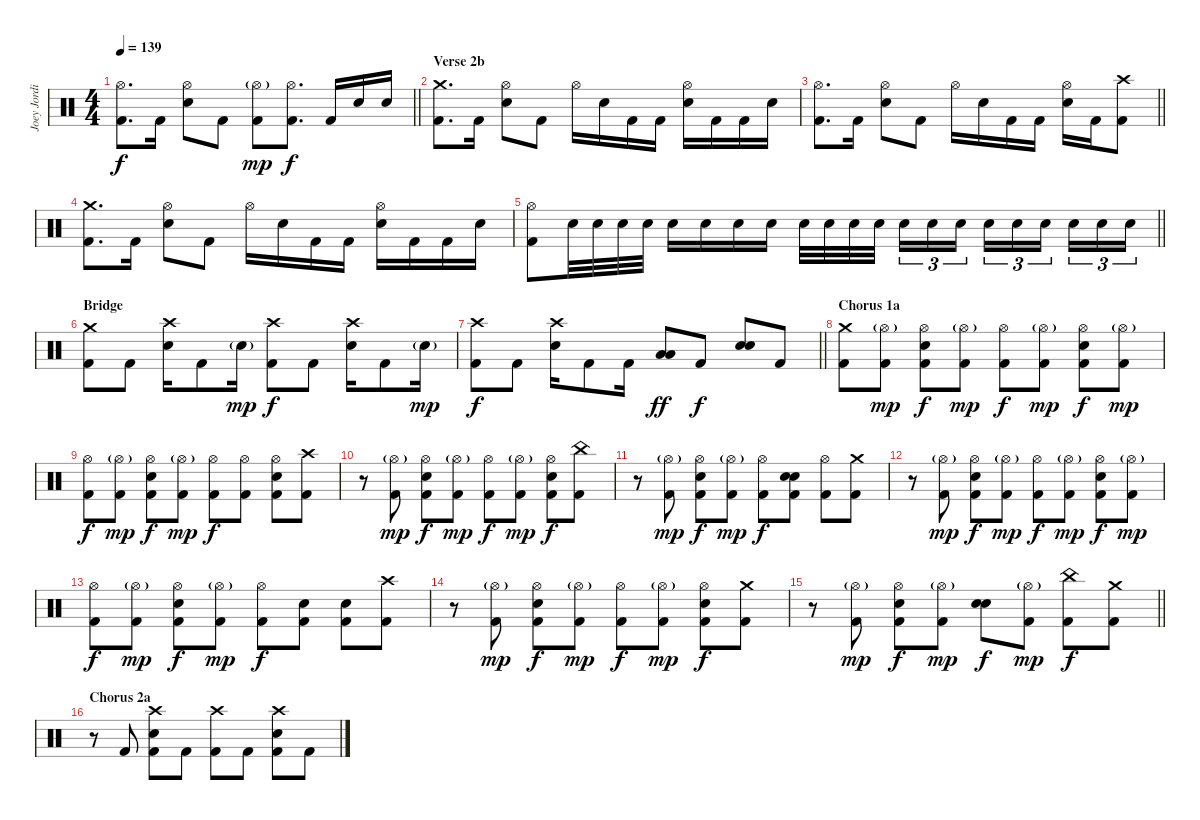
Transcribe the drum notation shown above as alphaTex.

\track ("Joey Jordison" "Joey Jordi") {instrument percussion}
\staff {score}
\articulation defaults
\ts (4 4)
\tempo 139
\clef neutral
\barLineRight lightlight
\ks c
("Hi-Hat (open)" "Kick (hit) 2").8{d dy f} "Kick (hit) 2".16 ("Hi-Hat (open)" "Electric Snare (hit)").8 "Kick (hit) 2".8 ("Hi-Hat (open)"{g} "Kick (hit) 2").8{dy mp} ("Hi-Hat (open)" "Kick (hit) 2").8{d dy f} "Kick (hit) 2".16 "Electric Snare (hit)".16 "Electric Snare (hit)".16 |
\section ("" "Verse 2b")
("Crash medium (hit)" "Kick (hit) 2").8{d} "Kick (hit) 2".16 ("Hi-Hat (open)" "Electric Snare (hit)").8 "Kick (hit) 2".8 "Hi-Hat (open)".16 "Electric Snare (hit)".16 "Kick (hit) 2".16 "Kick (hit) 2".16 ("Hi-Hat (open)" "Electric Snare (hit)").16 "Kick (hit) 2".16 "Kick (hit) 2".16 "Electric Snare (hit)".16 |
\barLineRight lightlight
("Hi-Hat (open)" "Kick (hit) 2").8{d} "Kick (hit) 2".16 ("Hi-Hat (open)" "Electric Snare (hit)").8 "Kick (hit) 2".8 "Hi-Hat (open)".16 "Electric Snare (hit)".16 "Kick (hit) 2".16 "Kick (hit) 2".16 ("Hi-Hat (open)" "Electric Snare (hit)").16 "Kick (hit) 2".16 ("Crash high (hit)" "Kick (hit) 2").8 |
("Crash medium (hit)" "Kick (hit) 2").8{d} "Kick (hit) 2".16 ("Hi-Hat (open)" "Electric Snare (hit)").8 "Kick (hit) 2".8 "Hi-Hat (open)".16 "Electric Snare (hit)".16 "Kick (hit) 2".16 "Kick (hit) 2".16 ("Hi-Hat (open)" "Electric Snare (hit)").16 "Kick (hit) 2".16 "Kick (hit) 2".16 "Electric Snare (hit)".16 |
\barLineRight lightlight
("Hi-Hat (open)" "Kick (hit) 2").8 "Electric Snare (hit)".32 "Electric Snare (hit)".32 "Electric Snare (hit)".32 "Electric Snare (hit)".32 "Electric Snare (hit)".16 "Electric Snare (hit)".16 "Electric Snare (hit)".16 "Electric Snare (hit)".16 "Electric Snare (hit)".32 "Electric Snare (hit)".32 "Electric Snare (hit)".32 "Electric Snare (hit)".32{beam splitsecondary} "Electric Snare (hit)".16{tu (3 2)} "Electric Snare (hit)".16{tu (3 2)} "Electric Snare (hit)".16{tu (3 2)} "Electric Snare (hit)".16{tu (3 2)} "Electric Snare (hit)".16{tu (3 2)} "Electric Snare (hit)".16{tu (3 2) beam splitsecondary} "Electric Snare (hit)".16{tu (3 2)} "Electric Snare (hit)".16{tu (3 2)} "Electric Snare (hit)".16{tu (3 2)} |
\section ("" "Bridge")
("Crash medium (hit)" "Kick (hit) 2").8 "Kick (hit) 2".8 ("Crash high (hit)" "Electric Snare (hit)").16 "Kick (hit) 2".8 "Electric Snare (hit)"{g}.16{dy mp} ("Crash high (hit)" "Kick (hit) 2").8{dy f} "Kick (hit) 2".8 ("Crash high (hit)" "Electric Snare (hit)").16 "Kick (hit) 2".8 "Electric Snare (hit)"{g}.16{dy mp} |
\barLineRight lightlight
("Crash high (hit)" "Kick (hit) 2").8{dy f} "Kick (hit) 2".8 ("Crash high (hit)" "Electric Snare (hit)").16 "Kick (hit) 2".8 "Kick (hit) 2".16 ("Low Tom (hit)" "Low Floor Tom (hit)").8{dy ff} "Kick (hit) 2".8{dy f} ("Electric Snare (hit)" "Electric Snare (hit)").8{bd 240} "Kick (hit) 2".8 |
\section ("" "Chorus 1a")
("Crash medium (hit)" "Kick (hit) 2").8 ("Hi-Hat (open)"{g} "Kick (hit) 2").8{dy mp} ("Hi-Hat (open)" "Electric Snare (hit)" "Kick (hit) 2").8{dy f} ("Hi-Hat (open)"{g} "Kick (hit) 2").8{dy mp} ("Hi-Hat (open)" "Kick (hit) 2").8{dy f} ("Hi-Hat (open)"{g} "Kick (hit) 2").8{dy mp} ("Hi-Hat (open)" "Electric Snare (hit)" "Kick (hit) 2").8{dy f} ("Hi-Hat (open)"{g} "Kick (hit) 2").8{dy mp} |
("Hi-Hat (open)" "Kick (hit) 2").8{dy f} ("Hi-Hat (open)"{g} "Kick (hit) 2").8{dy mp} ("Hi-Hat (open)" "Electric Snare (hit)" "Kick (hit) 2").8{dy f} ("Hi-Hat (open)"{g} "Kick (hit) 2").8{dy mp} ("Hi-Hat (open)" "Kick (hit) 2").8{dy f} ("Hi-Hat (open)" "Kick (hit) 2").8 ("Hi-Hat (open)" "Electric Snare (hit)" "Kick (hit) 2").8 ("Crash high (hit)" "Kick (hit) 2").8 |
r.8 ("Hi-Hat (open)"{g} "Kick (hit) 2").8{dy mp} ("Hi-Hat (open)" "Electric Snare (hit)" "Kick (hit) 2").8{dy f} ("Hi-Hat (open)"{g} "Kick (hit) 2").8{dy mp} ("Hi-Hat (open)" "Kick (hit) 2").8{dy f} ("Hi-Hat (open)"{g} "Kick (hit) 2").8{dy mp} ("Hi-Hat (open)" "Electric Snare (hit)" "Kick (hit) 2").8{dy f} ("China (hit)" "Kick (hit) 2").8 |
r.8 ("Hi-Hat (open)"{g} "Kick (hit) 2").8{dy mp} ("Hi-Hat (open)" "Electric Snare (hit)" "Kick (hit) 2").8{dy f} ("Hi-Hat (open)"{g} "Kick (hit) 2").8{dy mp} ("Hi-Hat (open)" "Kick (hit) 2").8{dy f} ("Electric Snare (hit)" "Electric Snare (hit)" "Kick (hit) 2").8{bd 240} ("Hi-Hat (open)" "Kick (hit) 2").8 ("Crash medium (hit)" "Kick (hit) 2").8 |
r.8 ("Hi-Hat (open)"{g} "Kick (hit) 2").8{dy mp} ("Hi-Hat (open)" "Electric Snare (hit)" "Kick (hit) 2").8{dy f} ("Hi-Hat (open)"{g} "Kick (hit) 2").8{dy mp} ("Hi-Hat (open)" "Kick (hit) 2").8{dy f} ("Hi-Hat (open)"{g} "Kick (hit) 2").8{dy mp} ("Hi-Hat (open)" "Electric Snare (hit)" "Kick (hit) 2").8{dy f} ("Hi-Hat (open)"{g} "Kick (hit) 2").8{dy mp} |
("Hi-Hat (open)" "Kick (hit) 2").8{dy f} ("Hi-Hat (open)"{g} "Kick (hit) 2").8{dy mp} ("Hi-Hat (open)" "Electric Snare (hit)" "Kick (hit) 2").8{dy f} ("Hi-Hat (open)"{g} "Kick (hit) 2").8{dy mp} ("Hi-Hat (open)" "Kick (hit) 2").8{dy f} ("Electric Snare (hit)" "Kick (hit) 2").8 ("Electric Snare (hit)" "Kick (hit) 2").8 ("Crash high (hit)" "Kick (hit) 2").8 |
r.8 ("Hi-Hat (open)"{g} "Kick (hit) 2").8{dy mp} ("Hi-Hat (open)" "Electric Snare (hit)" "Kick (hit) 2").8{dy f} ("Hi-Hat (open)"{g} "Kick (hit) 2").8{dy mp} ("Hi-Hat (open)" "Kick (hit) 2").8{dy f} ("Hi-Hat (open)"{g} "Kick (hit) 2").8{dy mp} ("Hi-Hat (open)" "Electric Snare (hit)" "Kick (hit) 2").8{dy f} ("Crash medium (hit)" "Kick (hit) 2").8 |
\barLineRight lightlight
r.8 ("Hi-Hat (open)"{g} "Kick (hit) 2").8{dy mp} ("Hi-Hat (open)" "Electric Snare (hit)" "Kick (hit) 2").8{dy f} ("Hi-Hat (open)"{g} "Kick (hit) 2").8{dy mp} ("Electric Snare (hit)" "Electric Snare (hit)").8{bd 240 dy f} ("Hi-Hat (open)"{g} "Kick (hit) 2").8{dy mp} ("China (hit)" "Kick (hit) 2").8{dy f} ("Crash medium (hit)" "Kick (hit) 2").8 |
\section ("" "Chorus 2a")
r.8 "Kick (hit) 2".8 ("Crash high (hit)" "Electric Snare (hit)" "Kick (hit) 2").8 "Kick (hit) 2".8 ("Crash high (hit)" "Kick (hit) 2").8 "Kick (hit) 2".8 ("Crash high (hit)" "Electric Snare (hit)" "Kick (hit) 2").8 "Kick (hit) 2".8
